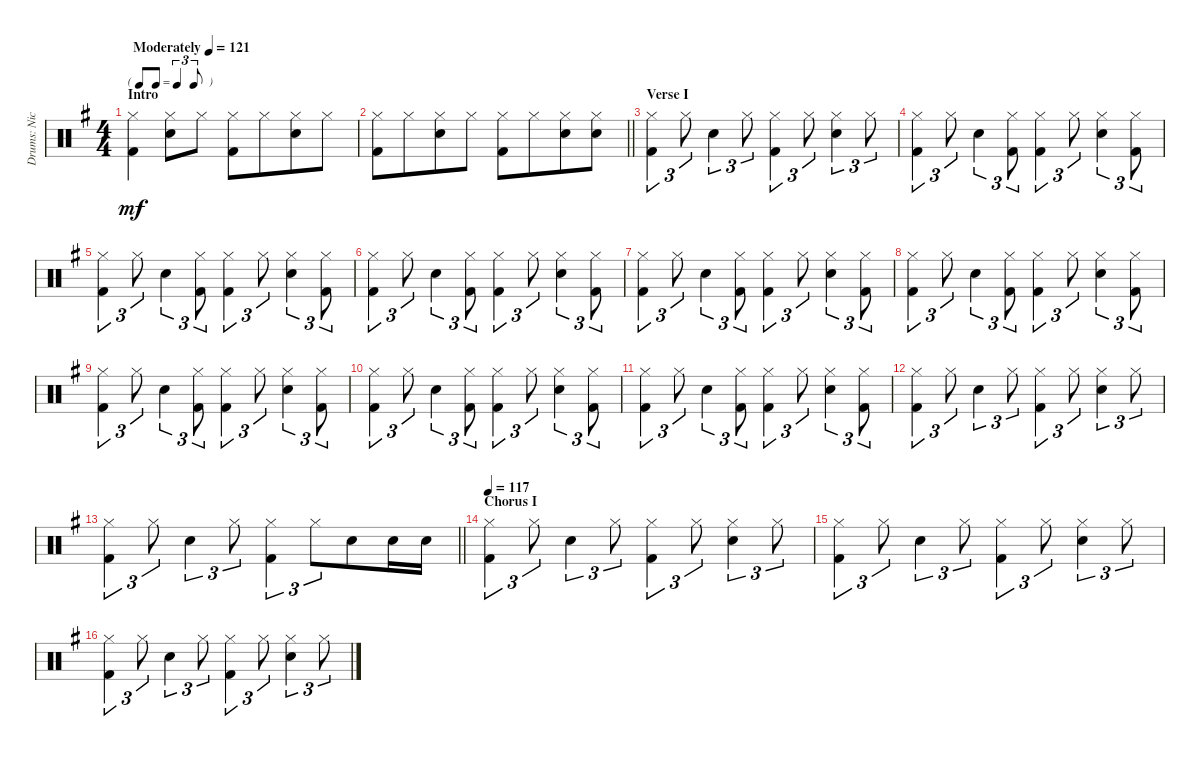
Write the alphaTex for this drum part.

\track ("Drums: Nick" "Drums: Nic") {instrument percussion}
\staff {score}
\articulation defaults
\ts (4 4)
\tf triplet8th
\section ("" "Intro")
\tempo (121 "Moderately")
\tempo 115
\tempo (121 "Moderately")
\clef neutral
\ks g
("Hi-Hat (closed)" "Kick (hit) 2").4{dy mf} ("Hi-Hat (closed)" "Electric Snare (hit)").8 "Hi-Hat (closed)".8{beam split} ("Hi-Hat (closed)" "Kick (hit) 2").8 "Hi-Hat (closed)".8{beam merge} ("Hi-Hat (closed)" "Electric Snare (hit)").8 "Hi-Hat (closed)".8 |
\barLineRight lightlight
("Hi-Hat (closed)" "Kick (hit) 2").8 "Hi-Hat (closed)".8{beam merge} ("Hi-Hat (closed)" "Electric Snare (hit)").8 "Hi-Hat (closed)".8{beam split} ("Hi-Hat (closed)" "Kick (hit) 2").8 "Hi-Hat (closed)".8{beam merge} ("Hi-Hat (closed)" "Electric Snare (hit)").8 ("Hi-Hat (closed)" "Electric Snare (hit)").8 |
\section ("" "Verse I")
("Hi-Hat (closed)" "Kick (hit) 2").4{tu (3 2)} "Hi-Hat (closed)".8{tu (3 2)} "Electric Snare (hit)".4{tu (3 2)} "Hi-Hat (closed)".8{tu (3 2)} ("Hi-Hat (closed)" "Kick (hit) 2").4{tu (3 2)} "Hi-Hat (closed)".8{tu (3 2)} ("Hi-Hat (closed)" "Electric Snare (hit)").4{tu (3 2)} "Hi-Hat (closed)".8{tu (3 2)} |
("Hi-Hat (closed)" "Kick (hit) 2").4{tu (3 2)} "Hi-Hat (closed)".8{tu (3 2)} "Electric Snare (hit)".4{tu (3 2)} ("Hi-Hat (closed)" "Kick (hit) 2").8{tu (3 2)} ("Hi-Hat (closed)" "Kick (hit) 2").4{tu (3 2)} "Hi-Hat (closed)".8{tu (3 2)} ("Hi-Hat (closed)" "Electric Snare (hit)").4{tu (3 2)} ("Hi-Hat (closed)" "Kick (hit) 2").8{tu (3 2)} |
("Hi-Hat (closed)" "Kick (hit) 2").4{tu (3 2)} "Hi-Hat (closed)".8{tu (3 2)} "Electric Snare (hit)".4{tu (3 2)} ("Hi-Hat (closed)" "Kick (hit) 2").8{tu (3 2)} ("Hi-Hat (closed)" "Kick (hit) 2").4{tu (3 2)} "Hi-Hat (closed)".8{tu (3 2)} ("Hi-Hat (closed)" "Electric Snare (hit)").4{tu (3 2)} ("Hi-Hat (closed)" "Kick (hit) 2").8{tu (3 2)} |
("Hi-Hat (closed)" "Kick (hit) 2").4{tu (3 2)} "Hi-Hat (closed)".8{tu (3 2)} "Electric Snare (hit)".4{tu (3 2)} ("Hi-Hat (closed)" "Kick (hit) 2").8{tu (3 2)} ("Hi-Hat (closed)" "Kick (hit) 2").4{tu (3 2)} "Hi-Hat (closed)".8{tu (3 2)} ("Hi-Hat (closed)" "Electric Snare (hit)").4{tu (3 2)} ("Hi-Hat (closed)" "Kick (hit) 2").8{tu (3 2)} |
("Hi-Hat (closed)" "Kick (hit) 2").4{tu (3 2)} "Hi-Hat (closed)".8{tu (3 2)} "Electric Snare (hit)".4{tu (3 2)} ("Hi-Hat (closed)" "Kick (hit) 2").8{tu (3 2)} ("Hi-Hat (closed)" "Kick (hit) 2").4{tu (3 2)} "Hi-Hat (closed)".8{tu (3 2)} ("Hi-Hat (closed)" "Electric Snare (hit)").4{tu (3 2)} ("Hi-Hat (closed)" "Kick (hit) 2").8{tu (3 2)} |
("Hi-Hat (closed)" "Kick (hit) 2").4{tu (3 2)} "Hi-Hat (closed)".8{tu (3 2)} "Electric Snare (hit)".4{tu (3 2)} ("Hi-Hat (closed)" "Kick (hit) 2").8{tu (3 2)} ("Hi-Hat (closed)" "Kick (hit) 2").4{tu (3 2)} "Hi-Hat (closed)".8{tu (3 2)} ("Hi-Hat (closed)" "Electric Snare (hit)").4{tu (3 2)} ("Hi-Hat (closed)" "Kick (hit) 2").8{tu (3 2)} |
("Hi-Hat (closed)" "Kick (hit) 2").4{tu (3 2)} "Hi-Hat (closed)".8{tu (3 2)} "Electric Snare (hit)".4{tu (3 2)} ("Hi-Hat (closed)" "Kick (hit) 2").8{tu (3 2)} ("Hi-Hat (closed)" "Kick (hit) 2").4{tu (3 2)} "Hi-Hat (closed)".8{tu (3 2)} ("Hi-Hat (closed)" "Electric Snare (hit)").4{tu (3 2)} ("Hi-Hat (closed)" "Kick (hit) 2").8{tu (3 2)} |
("Hi-Hat (closed)" "Kick (hit) 2").4{tu (3 2)} "Hi-Hat (closed)".8{tu (3 2)} "Electric Snare (hit)".4{tu (3 2)} ("Hi-Hat (closed)" "Kick (hit) 2").8{tu (3 2)} ("Hi-Hat (closed)" "Kick (hit) 2").4{tu (3 2)} "Hi-Hat (closed)".8{tu (3 2)} ("Hi-Hat (closed)" "Electric Snare (hit)").4{tu (3 2)} ("Hi-Hat (closed)" "Kick (hit) 2").8{tu (3 2)} |
("Hi-Hat (closed)" "Kick (hit) 2").4{tu (3 2)} "Hi-Hat (closed)".8{tu (3 2)} "Electric Snare (hit)".4{tu (3 2)} ("Hi-Hat (closed)" "Kick (hit) 2").8{tu (3 2)} ("Hi-Hat (closed)" "Kick (hit) 2").4{tu (3 2)} "Hi-Hat (closed)".8{tu (3 2)} ("Hi-Hat (closed)" "Electric Snare (hit)").4{tu (3 2)} ("Hi-Hat (closed)" "Kick (hit) 2").8{tu (3 2)} |
("Hi-Hat (closed)" "Kick (hit) 2").4{tu (3 2)} "Hi-Hat (closed)".8{tu (3 2)} "Electric Snare (hit)".4{tu (3 2)} "Hi-Hat (closed)".8{tu (3 2)} ("Hi-Hat (closed)" "Kick (hit) 2").4{tu (3 2)} "Hi-Hat (closed)".8{tu (3 2)} ("Hi-Hat (closed)" "Electric Snare (hit)").4{tu (3 2)} "Hi-Hat (closed)".8{tu (3 2)} |
\barLineRight lightlight
("Hi-Hat (closed)" "Kick (hit) 2").4{tu (3 2)} "Hi-Hat (closed)".8{tu (3 2)} "Electric Snare (hit)".4{tu (3 2)} "Hi-Hat (closed)".8{tu (3 2)} ("Hi-Hat (closed)" "Kick (hit) 2").4{tu (3 2)} "Hi-Hat (closed)".8{tu (3 2) beam merge} "Electric Snare (hit)".8 "Electric Snare (hit)".16 "Electric Snare (hit)".16 |
\section ("" "Chorus I")
\tempo 117
("Hi-Hat (closed)" "Kick (hit) 2").4{tu (3 2)} "Hi-Hat (closed)".8{tu (3 2)} "Electric Snare (hit)".4{tu (3 2)} "Hi-Hat (closed)".8{tu (3 2)} ("Hi-Hat (closed)" "Kick (hit) 2").4{tu (3 2)} "Hi-Hat (closed)".8{tu (3 2)} ("Hi-Hat (closed)" "Electric Snare (hit)").4{tu (3 2)} "Hi-Hat (closed)".8{tu (3 2)} |
("Hi-Hat (closed)" "Kick (hit) 2").4{tu (3 2)} "Hi-Hat (closed)".8{tu (3 2)} "Electric Snare (hit)".4{tu (3 2)} "Hi-Hat (closed)".8{tu (3 2)} ("Hi-Hat (closed)" "Kick (hit) 2").4{tu (3 2)} "Hi-Hat (closed)".8{tu (3 2)} ("Hi-Hat (closed)" "Electric Snare (hit)").4{tu (3 2)} "Hi-Hat (closed)".8{tu (3 2)} |
("Hi-Hat (closed)" "Kick (hit) 2").4{tu (3 2)} "Hi-Hat (closed)".8{tu (3 2)} "Electric Snare (hit)".4{tu (3 2)} "Hi-Hat (closed)".8{tu (3 2)} ("Hi-Hat (closed)" "Kick (hit) 2").4{tu (3 2)} "Hi-Hat (closed)".8{tu (3 2)} ("Hi-Hat (closed)" "Electric Snare (hit)").4{tu (3 2)} "Hi-Hat (closed)".8{tu (3 2)}
